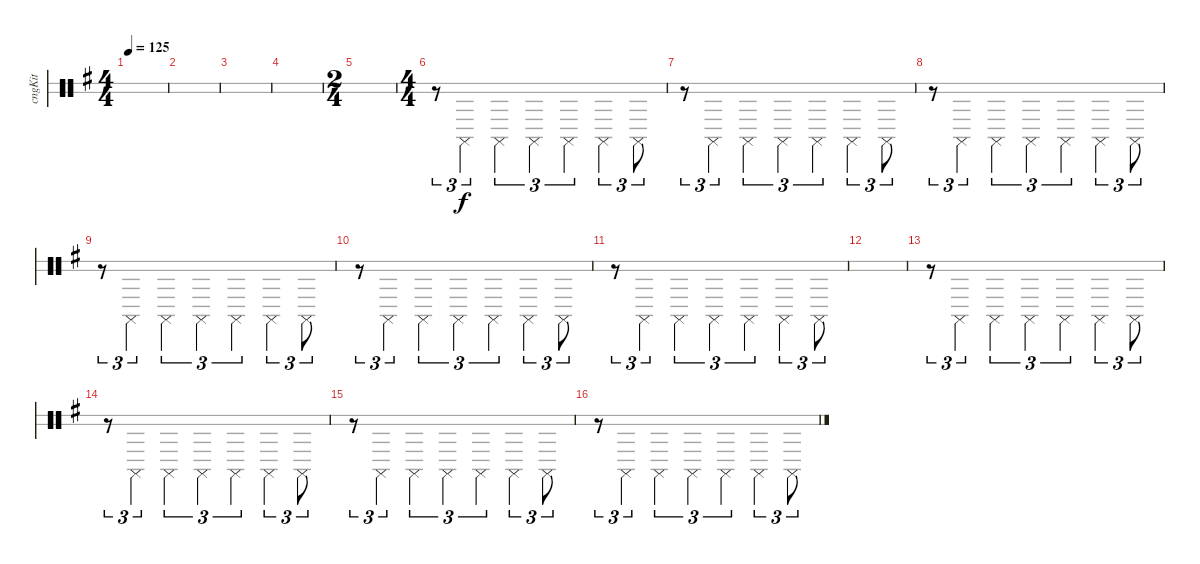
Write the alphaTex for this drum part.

\defaultSystemsLayout 4
\bracketExtendMode groupsimilarinstruments
\otherSystemsTrackNameOrientation horizontal
\track ("Congas" "cngKit") {instrument percussion}
\staff {score 2}
\articulation defaults
\ts (4 4)
\tempo 125
\clef neutral
\scale
0.333333
\ks g
|
\scale
0.333333 |
\scale
0.262911 |
\scale
0.262911 |
\ts (2 4)
\scale
0.474178 |
\ts (4 4)
\scale
0.474178 r.8{tu (3 2) beam Down} "Conga high (slap)"{acc forcenatural}.4{tu (3 2) beam Down} "Conga high (slap)"{acc forcenatural}.4{tu (3 2) beam Down} "Conga high (slap)"{acc forcenatural}.4{tu (3 2) beam Down} "Conga high (slap)"{acc forcenatural}.4{tu (3 2) beam Down} "Conga high (slap)"{acc forcenatural}.4{tu (3 2) beam Down} "Conga high (slap)"{acc forcenatural}.8{tu (3 2) beam Down} |
\scale
0.262911 r.8{tu (3 2) beam Down} "Conga high (slap)"{acc forcenatural}.4{tu (3 2) beam Down} "Conga high (slap)"{acc forcenatural}.4{tu (3 2) beam Down} "Conga high (slap)"{acc forcenatural}.4{tu (3 2) beam Down} "Conga high (slap)"{acc forcenatural}.4{tu (3 2) beam Down} "Conga high (slap)"{acc forcenatural}.4{tu (3 2) beam Down} "Conga high (slap)"{acc forcenatural}.8{tu (3 2) beam Down} |
\scale
0.262911 r.8{tu (3 2) beam Down} "Conga high (slap)"{acc forcenatural}.4{tu (3 2) beam Down} "Conga high (slap)"{acc forcenatural}.4{tu (3 2) beam Down} "Conga high (slap)"{acc forcenatural}.4{tu (3 2) beam Down} "Conga high (slap)"{acc forcenatural}.4{tu (3 2) beam Down} "Conga high (slap)"{acc forcenatural}.4{tu (3 2) beam Down} "Conga high (slap)"{acc forcenatural}.8{tu (3 2) beam Down} |
\scale
0.333333 r.8{tu (3 2) beam Down} "Conga high (slap)"{acc forcenatural}.4{tu (3 2) beam Down} "Conga high (slap)"{acc forcenatural}.4{tu (3 2) beam Down} "Conga high (slap)"{acc forcenatural}.4{tu (3 2) beam Down} "Conga high (slap)"{acc forcenatural}.4{tu (3 2) beam Down} "Conga high (slap)"{acc forcenatural}.4{tu (3 2) beam Down} "Conga high (slap)"{acc forcenatural}.8{tu (3 2) beam Down} |
\scale
0.333333 r.8{tu (3 2) beam Down} "Conga high (slap)"{acc forcenatural}.4{tu (3 2) beam Down} "Conga high (slap)"{acc forcenatural}.4{tu (3 2) beam Down} "Conga high (slap)"{acc forcenatural}.4{tu (3 2) beam Down} "Conga high (slap)"{acc forcenatural}.4{tu (3 2) beam Down} "Conga high (slap)"{acc forcenatural}.4{tu (3 2) beam Down} "Conga high (slap)"{acc forcenatural}.8{tu (3 2) beam Down} |
\scale
0.333333 r.8{tu (3 2) beam Down} "Conga high (slap)"{acc forcenatural}.4{tu (3 2) beam Down} "Conga high (slap)"{acc forcenatural}.4{tu (3 2) beam Down} "Conga high (slap)"{acc forcenatural}.4{tu (3 2) beam Down} "Conga high (slap)"{acc forcenatural}.4{tu (3 2) beam Down} "Conga high (slap)"{acc forcenatural}.4{tu (3 2) beam Down} "Conga high (slap)"{acc forcenatural}.8{tu (3 2) beam Down} |
\scale
0.333333 |
\scale
0.333333 r.8{tu (3 2) beam Down} "Conga high (slap)"{acc forcenatural}.4{tu (3 2) beam Down} "Conga high (slap)"{acc forcenatural}.4{tu (3 2) beam Down} "Conga high (slap)"{acc forcenatural}.4{tu (3 2) beam Down} "Conga high (slap)"{acc forcenatural}.4{tu (3 2) beam Down} "Conga high (slap)"{acc forcenatural}.4{tu (3 2) beam Down} "Conga high (slap)"{acc forcenatural}.8{tu (3 2) beam Down} |
\scale
0.333333 r.8{tu (3 2) beam Down} "Conga high (slap)"{acc forcenatural}.4{tu (3 2) beam Down} "Conga high (slap)"{acc forcenatural}.4{tu (3 2) beam Down} "Conga high (slap)"{acc forcenatural}.4{tu (3 2) beam Down} "Conga high (slap)"{acc forcenatural}.4{tu (3 2) beam Down} "Conga high (slap)"{acc forcenatural}.4{tu (3 2) beam Down} "Conga high (slap)"{acc forcenatural}.8{tu (3 2) beam Down} |
\scale
0.333333 r.8{tu (3 2) beam Down} "Conga high (slap)"{acc forcenatural}.4{tu (3 2) beam Down} "Conga high (slap)"{acc forcenatural}.4{tu (3 2) beam Down} "Conga high (slap)"{acc forcenatural}.4{tu (3 2) beam Down} "Conga high (slap)"{acc forcenatural}.4{tu (3 2) beam Down} "Conga high (slap)"{acc forcenatural}.4{tu (3 2) beam Down} "Conga high (slap)"{acc forcenatural}.8{tu (3 2) beam Down} |
\scale
0.333333 r.8{tu (3 2) beam Down} "Conga high (slap)"{acc forcenatural}.4{tu (3 2) beam Down} "Conga high (slap)"{acc forcenatural}.4{tu (3 2) beam Down} "Conga high (slap)"{acc forcenatural}.4{tu (3 2) beam Down} "Conga high (slap)"{acc forcenatural}.4{tu (3 2) beam Down} "Conga high (slap)"{acc forcenatural}.4{tu (3 2) beam Down} "Conga high (slap)"{acc forcenatural}.8{tu (3 2) beam Down}
